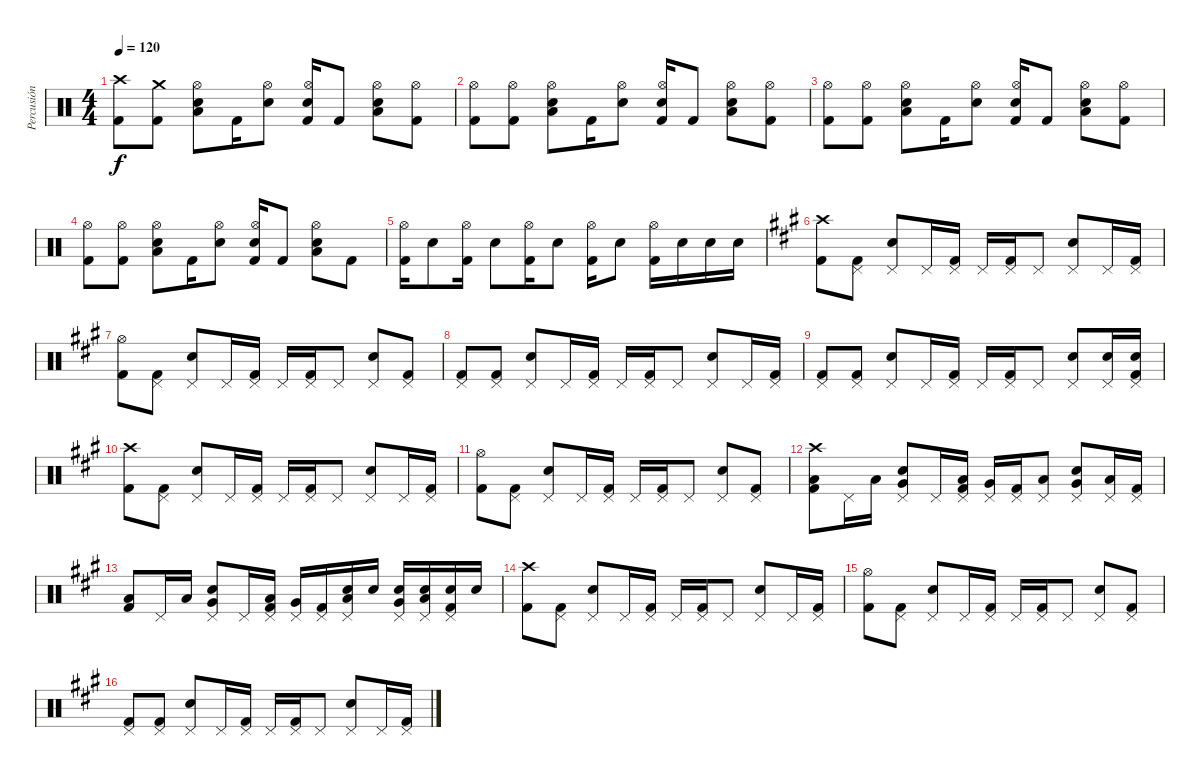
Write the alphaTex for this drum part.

\track ("Percusión" "Percusión") {instrument percussion}
\staff {score}
\articulation defaults
\ts (4 4)
\tempo 120
\clef neutral
\ks c
("Crash high (hit)" "Kick (hit) 2").8{dy f} ("Crash medium (hit)" "Kick (hit) 2").8 ("Hi-Hat (open)" "Electric Snare (hit)" "Low Floor Tom (hit)").8 "Kick (hit) 2".16 ("Hi-Hat (open)" "Electric Snare (hit)").8 ("Hi-Hat (open)" "Electric Snare (hit)" "Kick (hit) 2").16 "Kick (hit) 2".8 ("Hi-Hat (open)" "Electric Snare (hit)" "Low Floor Tom (hit)").8 ("Hi-Hat (open)" "Kick (hit) 2").8 |
("Hi-Hat (open)" "Kick (hit) 2").8 ("Hi-Hat (open)" "Kick (hit) 2").8 ("Hi-Hat (open)" "Electric Snare (hit)" "Low Floor Tom (hit)").8 "Kick (hit) 2".16 ("Hi-Hat (open)" "Electric Snare (hit)").8 ("Hi-Hat (open)" "Electric Snare (hit)" "Kick (hit) 2").16 "Kick (hit) 2".8 ("Hi-Hat (open)" "Electric Snare (hit)" "Low Floor Tom (hit)").8 ("Hi-Hat (open)" "Kick (hit) 2").8 |
("Hi-Hat (open)" "Kick (hit) 2").8 ("Hi-Hat (open)" "Kick (hit) 2").8 ("Hi-Hat (open)" "Electric Snare (hit)" "Low Floor Tom (hit)").8 "Kick (hit) 2".16 ("Hi-Hat (open)" "Electric Snare (hit)").8 ("Hi-Hat (open)" "Electric Snare (hit)" "Kick (hit) 2").16 "Kick (hit) 2".8 ("Hi-Hat (open)" "Electric Snare (hit)" "Low Floor Tom (hit)").8 ("Hi-Hat (open)" "Kick (hit) 2").8 |
("Hi-Hat (open)" "Kick (hit) 2").8 ("Hi-Hat (open)" "Kick (hit) 2").8 ("Hi-Hat (open)" "Electric Snare (hit)" "Low Floor Tom (hit)").8 "Kick (hit) 2".16 ("Hi-Hat (open)" "Electric Snare (hit)").8 ("Hi-Hat (open)" "Electric Snare (hit)" "Kick (hit) 2").16 "Kick (hit) 2".8 ("Hi-Hat (open)" "Electric Snare (hit)" "Low Floor Tom (hit)").8 "Kick (hit) 2".8 |
("Hi-Hat (open)" "Kick (hit) 2").16 "Electric Snare (hit)".8 ("Hi-Hat (open)" "Kick (hit) 2").16 "Electric Snare (hit)".8 ("Hi-Hat (open)" "Kick (hit) 2").16 "Electric Snare (hit)".8 ("Hi-Hat (open)" "Kick (hit) 2").16 "Electric Snare (hit)".8 ("Hi-Hat (open)" "Kick (hit) 2").16 "Electric Snare (hit)".16 "Electric Snare (hit)".16 "Electric Snare (hit)".16 |
\ks a
("Crash high (hit)" "Kick (hit) 2").8 ("Pedal Hi-Hat (hit)" "Kick (hit) 2").8 ("Pedal Hi-Hat (hit)" "Electric Snare (hit)").8 "Pedal Hi-Hat (hit)".16 ("Pedal Hi-Hat (hit)" "Kick (hit) 2").16 "Pedal Hi-Hat (hit)".16 ("Pedal Hi-Hat (hit)" "Kick (hit) 2").16 "Pedal Hi-Hat (hit)".8 ("Pedal Hi-Hat (hit)" "Electric Snare (hit)").8 "Pedal Hi-Hat (hit)".16 ("Pedal Hi-Hat (hit)" "Kick (hit) 2").16 |
("Hi-Hat (open)" "Kick (hit) 2").8 ("Pedal Hi-Hat (hit)" "Kick (hit) 2").8 ("Pedal Hi-Hat (hit)" "Electric Snare (hit)").8 "Pedal Hi-Hat (hit)".16 ("Pedal Hi-Hat (hit)" "Kick (hit) 2").16 "Pedal Hi-Hat (hit)".16 ("Pedal Hi-Hat (hit)" "Kick (hit) 2").16 "Pedal Hi-Hat (hit)".8 ("Pedal Hi-Hat (hit)" "Electric Snare (hit)").8 ("Pedal Hi-Hat (hit)" "Kick (hit) 2").8 |
("Pedal Hi-Hat (hit)" "Kick (hit) 2").8 ("Pedal Hi-Hat (hit)" "Kick (hit) 2").8 ("Pedal Hi-Hat (hit)" "Electric Snare (hit)").8 "Pedal Hi-Hat (hit)".16 ("Pedal Hi-Hat (hit)" "Kick (hit) 2").16 "Pedal Hi-Hat (hit)".16 ("Pedal Hi-Hat (hit)" "Kick (hit) 2").16 "Pedal Hi-Hat (hit)".8 ("Pedal Hi-Hat (hit)" "Electric Snare (hit)").8 "Pedal Hi-Hat (hit)".16 ("Pedal Hi-Hat (hit)" "Kick (hit) 2").16 |
("Pedal Hi-Hat (hit)" "Kick (hit) 2").8 ("Pedal Hi-Hat (hit)" "Kick (hit) 2").8 ("Pedal Hi-Hat (hit)" "Electric Snare (hit)").8 "Pedal Hi-Hat (hit)".16 ("Pedal Hi-Hat (hit)" "Kick (hit) 2").16 "Pedal Hi-Hat (hit)".16 ("Pedal Hi-Hat (hit)" "Kick (hit) 2").16 "Pedal Hi-Hat (hit)".8 ("Pedal Hi-Hat (hit)" "Electric Snare (hit)").8 ("Pedal Hi-Hat (hit)" "Electric Snare (hit)").16 ("Pedal Hi-Hat (hit)" "Electric Snare (hit)" "Kick (hit) 2").16 |
("Crash high (hit)" "Kick (hit) 2").8 ("Pedal Hi-Hat (hit)" "Kick (hit) 2").8 ("Pedal Hi-Hat (hit)" "Electric Snare (hit)").8 "Pedal Hi-Hat (hit)".16 ("Pedal Hi-Hat (hit)" "Kick (hit) 2").16 "Pedal Hi-Hat (hit)".16 ("Pedal Hi-Hat (hit)" "Kick (hit) 2").16 "Pedal Hi-Hat (hit)".8 ("Pedal Hi-Hat (hit)" "Electric Snare (hit)").8 "Pedal Hi-Hat (hit)".16 ("Pedal Hi-Hat (hit)" "Kick (hit) 2").16 |
("Hi-Hat (open)" "Kick (hit) 2").8 ("Pedal Hi-Hat (hit)" "Kick (hit) 2").8 ("Pedal Hi-Hat (hit)" "Electric Snare (hit)").8 "Pedal Hi-Hat (hit)".16 ("Pedal Hi-Hat (hit)" "Kick (hit) 2").16 "Pedal Hi-Hat (hit)".16 ("Pedal Hi-Hat (hit)" "Kick (hit) 2").16 "Pedal Hi-Hat (hit)".8 ("Pedal Hi-Hat (hit)" "Electric Snare (hit)").8 ("Pedal Hi-Hat (hit)" "Kick (hit) 2").8 |
("Crash high (hit)" "Low Floor Tom (hit)" "Kick (hit) 2").8 "Pedal Hi-Hat (hit)".16 "Low Floor Tom (hit)".16 ("Pedal Hi-Hat (hit)" "Electric Snare (hit)" "Very Low Tom (hit)").8 "Pedal Hi-Hat (hit)".16 ("Pedal Hi-Hat (hit)" "Low Floor Tom (hit)" "Kick (hit) 2").16 ("Pedal Hi-Hat (hit)" "Very Low Tom (hit)").16 ("Pedal Hi-Hat (hit)" "Kick (hit) 2").16 ("Pedal Hi-Hat (hit)" "Low Floor Tom (hit)").8 ("Pedal Hi-Hat (hit)" "Electric Snare (hit)" "Very Low Tom (hit)").8 ("Pedal Hi-Hat (hit)" "Low Floor Tom (hit)").16 ("Pedal Hi-Hat (hit)" "Kick (hit) 2").16 |
("Low Floor Tom (hit)" "Kick (hit) 2").8 "Pedal Hi-Hat (hit)".16 "Low Floor Tom (hit)".16 ("Pedal Hi-Hat (hit)" "Electric Snare (hit)" "Very Low Tom (hit)").8 "Pedal Hi-Hat (hit)".16 ("Pedal Hi-Hat (hit)" "Low Floor Tom (hit)" "Kick (hit) 2").16 ("Pedal Hi-Hat (hit)" "Very Low Tom (hit)").16 ("Pedal Hi-Hat (hit)" "Kick (hit) 2").16 ("Pedal Hi-Hat (hit)" "Electric Snare (hit)" "Low Floor Tom (hit)").16 "Electric Snare (hit)".16 ("Pedal Hi-Hat (hit)" "Electric Snare (hit)" "Very Low Tom (hit)").16 ("Pedal Hi-Hat (hit)" "Electric Snare (hit)" "Low Floor Tom (hit)").16 ("Pedal Hi-Hat (hit)" "Electric Snare (hit)" "Kick (hit) 2").16 "Electric Snare (hit)".16 |
("Crash high (hit)" "Kick (hit) 2").8 ("Pedal Hi-Hat (hit)" "Kick (hit) 2").8 ("Pedal Hi-Hat (hit)" "Electric Snare (hit)").8 "Pedal Hi-Hat (hit)".16 ("Pedal Hi-Hat (hit)" "Kick (hit) 2").16 "Pedal Hi-Hat (hit)".16 ("Pedal Hi-Hat (hit)" "Kick (hit) 2").16 "Pedal Hi-Hat (hit)".8 ("Pedal Hi-Hat (hit)" "Electric Snare (hit)").8 "Pedal Hi-Hat (hit)".16 ("Pedal Hi-Hat (hit)" "Kick (hit) 2").16 |
("Hi-Hat (open)" "Kick (hit) 2").8 ("Pedal Hi-Hat (hit)" "Kick (hit) 2").8 ("Pedal Hi-Hat (hit)" "Electric Snare (hit)").8 "Pedal Hi-Hat (hit)".16 ("Pedal Hi-Hat (hit)" "Kick (hit) 2").16 "Pedal Hi-Hat (hit)".16 ("Pedal Hi-Hat (hit)" "Kick (hit) 2").16 "Pedal Hi-Hat (hit)".8 ("Pedal Hi-Hat (hit)" "Electric Snare (hit)").8 ("Pedal Hi-Hat (hit)" "Kick (hit) 2").8 |
("Pedal Hi-Hat (hit)" "Kick (hit) 2").8 ("Pedal Hi-Hat (hit)" "Kick (hit) 2").8 ("Pedal Hi-Hat (hit)" "Electric Snare (hit)").8 "Pedal Hi-Hat (hit)".16 ("Pedal Hi-Hat (hit)" "Kick (hit) 2").16 "Pedal Hi-Hat (hit)".16 ("Pedal Hi-Hat (hit)" "Kick (hit) 2").16 "Pedal Hi-Hat (hit)".8 ("Pedal Hi-Hat (hit)" "Electric Snare (hit)").8 "Pedal Hi-Hat (hit)".16 ("Pedal Hi-Hat (hit)" "Kick (hit) 2").16
